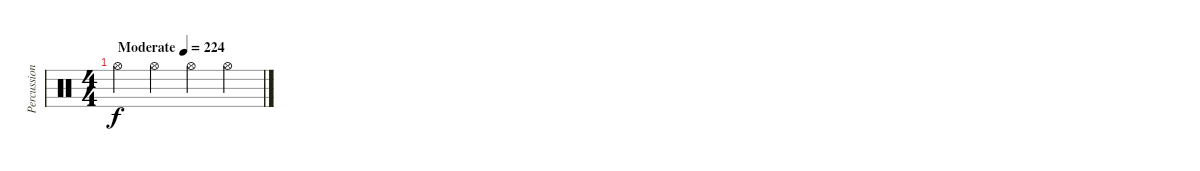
\track ("Percussion" "Percussion") {instrument percussion}
\staff {score}
\articulation defaults
\ts (4 4)
\tempo (224 "Moderate")
\clef neutral
\ks c "Hi-Hat (open)".4{dy f} "Hi-Hat (open)".4 "Hi-Hat (open)".4 "Hi-Hat (open)".4
